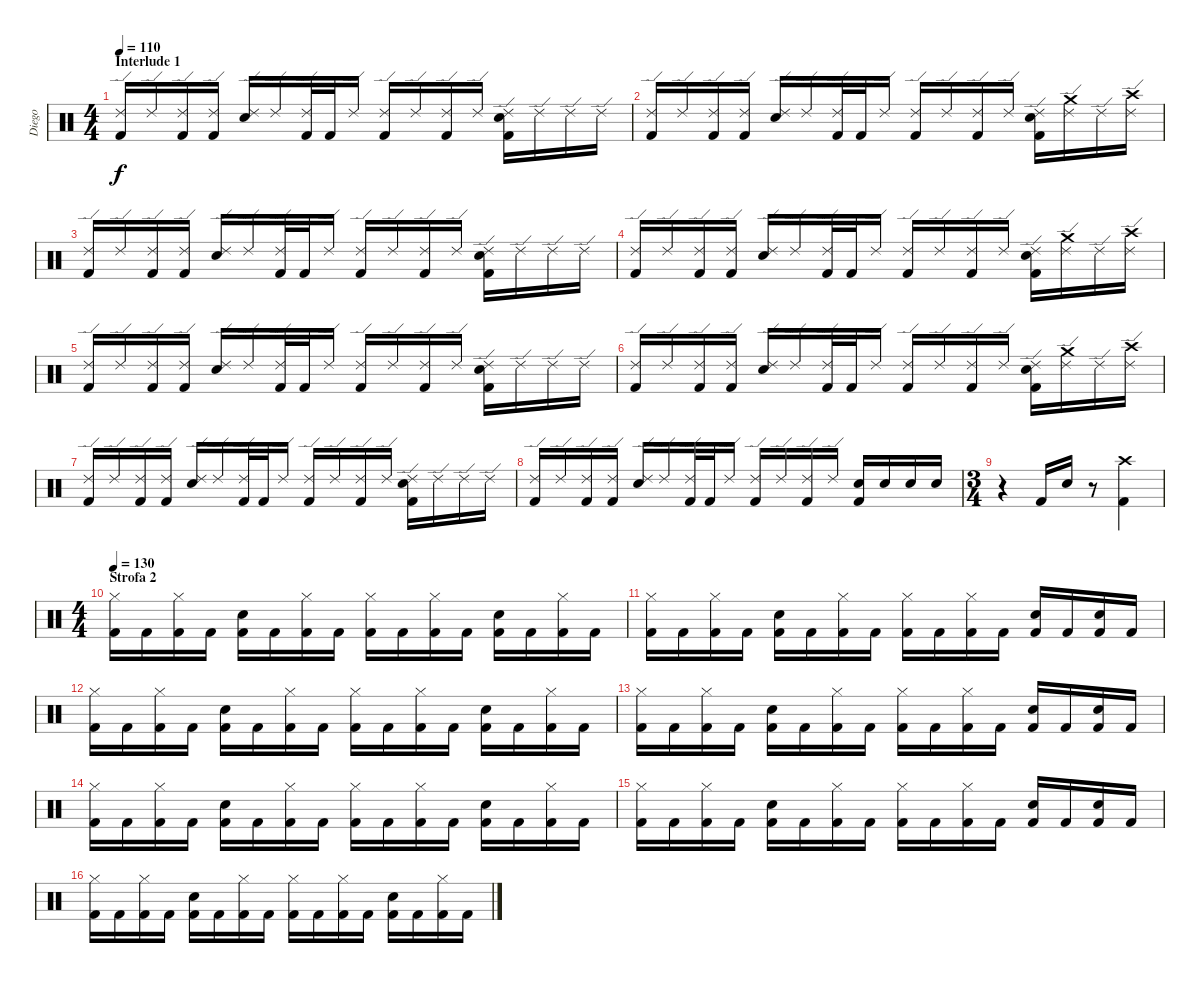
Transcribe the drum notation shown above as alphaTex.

\track ("Diego" "Diego") {instrument percussion}
\staff {score}
\articulation defaults
\ts (4 4)
\section ("" "Interlude 1")
\tempo 110
\clef neutral
\ks c
("Ride (edge) 2" "Kick (hit) 2").16{dy f} "Ride (edge) 2".16 ("Ride (edge) 2" "Kick (hit) 2").16 ("Ride (edge) 2" "Kick (hit) 2").16 ("Snare (hit) 2" "Ride (edge) 2").16 "Ride (edge) 2".16 ("Ride (edge) 2" "Kick (hit) 2").32 "Kick (hit) 2".32 "Ride (edge) 2".16 ("Ride (edge) 2" "Kick (hit) 2").16 "Ride (edge) 2".16 ("Ride (edge) 2" "Kick (hit) 2").16 "Ride (edge) 2".16 ("Ride (edge) 2" "Snare (hit) 2" "Kick (hit) 2").16 "Ride (edge) 2".16 "Ride (edge) 2".16 "Ride (edge) 2".16 |
("Ride (edge) 2" "Kick (hit) 2").16 "Ride (edge) 2".16 ("Ride (edge) 2" "Kick (hit) 2").16 ("Ride (edge) 2" "Kick (hit) 2").16 ("Snare (hit) 2" "Ride (edge) 2").16 "Ride (edge) 2".16 ("Ride (edge) 2" "Kick (hit) 2").32 "Kick (hit) 2".32 "Ride (edge) 2".16 ("Ride (edge) 2" "Kick (hit) 2").16 "Ride (edge) 2".16 ("Ride (edge) 2" "Kick (hit) 2").16 "Ride (edge) 2".16 ("Ride (edge) 2" "Snare (hit) 2" "Kick (hit) 2").16 ("Crash medium (hit)" "Ride (edge) 2").16 "Ride (edge) 2".16 ("Crash high (hit)" "Ride (edge) 2").16 |
("Ride (edge) 2" "Kick (hit) 2").16 "Ride (edge) 2".16 ("Ride (edge) 2" "Kick (hit) 2").16 ("Ride (edge) 2" "Kick (hit) 2").16 ("Snare (hit) 2" "Ride (edge) 2").16 "Ride (edge) 2".16 ("Ride (edge) 2" "Kick (hit) 2").32 "Kick (hit) 2".32 "Ride (edge) 2".16 ("Ride (edge) 2" "Kick (hit) 2").16 "Ride (edge) 2".16 ("Ride (edge) 2" "Kick (hit) 2").16 "Ride (edge) 2".16 ("Ride (edge) 2" "Snare (hit) 2" "Kick (hit) 2").16 "Ride (edge) 2".16 "Ride (edge) 2".16 "Ride (edge) 2".16 |
("Ride (edge) 2" "Kick (hit) 2").16 "Ride (edge) 2".16 ("Ride (edge) 2" "Kick (hit) 2").16 ("Ride (edge) 2" "Kick (hit) 2").16 ("Snare (hit) 2" "Ride (edge) 2").16 "Ride (edge) 2".16 ("Ride (edge) 2" "Kick (hit) 2").32 "Kick (hit) 2".32 "Ride (edge) 2".16 ("Ride (edge) 2" "Kick (hit) 2").16 "Ride (edge) 2".16 ("Ride (edge) 2" "Kick (hit) 2").16 "Ride (edge) 2".16 ("Ride (edge) 2" "Snare (hit) 2" "Kick (hit) 2").16 ("Crash medium (hit)" "Ride (edge) 2").16 "Ride (edge) 2".16 ("Crash high (hit)" "Ride (edge) 2").16 |
("Ride (edge) 2" "Kick (hit) 2").16 "Ride (edge) 2".16 ("Ride (edge) 2" "Kick (hit) 2").16 ("Ride (edge) 2" "Kick (hit) 2").16 ("Snare (hit) 2" "Ride (edge) 2").16 "Ride (edge) 2".16 ("Ride (edge) 2" "Kick (hit) 2").32 "Kick (hit) 2".32 "Ride (edge) 2".16 ("Ride (edge) 2" "Kick (hit) 2").16 "Ride (edge) 2".16 ("Ride (edge) 2" "Kick (hit) 2").16 "Ride (edge) 2".16 ("Ride (edge) 2" "Snare (hit) 2" "Kick (hit) 2").16 "Ride (edge) 2".16 "Ride (edge) 2".16 "Ride (edge) 2".16 |
("Ride (edge) 2" "Kick (hit) 2").16 "Ride (edge) 2".16 ("Ride (edge) 2" "Kick (hit) 2").16 ("Ride (edge) 2" "Kick (hit) 2").16 ("Snare (hit) 2" "Ride (edge) 2").16 "Ride (edge) 2".16 ("Ride (edge) 2" "Kick (hit) 2").32 "Kick (hit) 2".32 "Ride (edge) 2".16 ("Ride (edge) 2" "Kick (hit) 2").16 "Ride (edge) 2".16 ("Ride (edge) 2" "Kick (hit) 2").16 "Ride (edge) 2".16 ("Ride (edge) 2" "Snare (hit) 2" "Kick (hit) 2").16 ("Crash medium (hit)" "Ride (edge) 2").16 "Ride (edge) 2".16 ("Crash high (hit)" "Ride (edge) 2").16 |
("Ride (edge) 2" "Kick (hit) 2").16 "Ride (edge) 2".16 ("Ride (edge) 2" "Kick (hit) 2").16 ("Ride (edge) 2" "Kick (hit) 2").16 ("Snare (hit) 2" "Ride (edge) 2").16 "Ride (edge) 2".16 ("Ride (edge) 2" "Kick (hit) 2").32 "Kick (hit) 2".32 "Ride (edge) 2".16 ("Ride (edge) 2" "Kick (hit) 2").16 "Ride (edge) 2".16 ("Ride (edge) 2" "Kick (hit) 2").16 "Ride (edge) 2".16 ("Ride (edge) 2" "Snare (hit) 2" "Kick (hit) 2").16 "Ride (edge) 2".16 "Ride (edge) 2".16 "Ride (edge) 2".16 |
("Ride (edge) 2" "Kick (hit) 2").16 "Ride (edge) 2".16 ("Ride (edge) 2" "Kick (hit) 2").16 ("Ride (edge) 2" "Kick (hit) 2").16 ("Snare (hit) 2" "Ride (edge) 2").16 "Ride (edge) 2".16 ("Ride (edge) 2" "Kick (hit) 2").32 "Kick (hit) 2".32 "Ride (edge) 2".16 ("Ride (edge) 2" "Kick (hit) 2").16 "Ride (edge) 2".16 ("Ride (edge) 2" "Kick (hit) 2").16 "Ride (edge) 2".16 ("Snare (hit) 2" "Kick (hit) 2").16 "Snare (hit) 2".16 "Snare (hit) 2".16 "Snare (hit) 2".16 |
\ts (3 4)
r.4 "Kick (hit) 2".16 "Snare (hit) 2".16 r.8 ("Crash high (hit)" "Kick (hit) 2").4 |
\ts (4 4)
\section ("" "Strofa 2")
\tempo 130
("Hi-Hat (closed)" "Kick (hit) 2").16 "Kick (hit) 2".16 ("Hi-Hat (closed)" "Kick (hit) 2").16 "Kick (hit) 2".16 ("Snare (hit) 2" "Kick (hit) 2").16 "Kick (hit) 2".16 ("Hi-Hat (closed)" "Kick (hit) 2").16 "Kick (hit) 2".16 ("Hi-Hat (closed)" "Kick (hit) 2").16 "Kick (hit) 2".16 ("Hi-Hat (closed)" "Kick (hit) 2").16 "Kick (hit) 2".16 ("Snare (hit) 2" "Kick (hit) 2").16 "Kick (hit) 2".16 ("Hi-Hat (closed)" "Kick (hit) 2").16 "Kick (hit) 2".16 |
("Hi-Hat (closed)" "Kick (hit) 2").16 "Kick (hit) 2".16 ("Hi-Hat (closed)" "Kick (hit) 2").16 "Kick (hit) 2".16 ("Snare (hit) 2" "Kick (hit) 2").16 "Kick (hit) 2".16 ("Hi-Hat (closed)" "Kick (hit) 2").16 "Kick (hit) 2".16 ("Hi-Hat (closed)" "Kick (hit) 2").16 "Kick (hit) 2".16 ("Hi-Hat (closed)" "Kick (hit) 2").16 "Kick (hit) 2".16 ("Snare (hit) 2" "Kick (hit) 2").16 "Kick (hit) 2".16 ("Snare (hit) 2" "Kick (hit) 2").16 "Kick (hit) 2".16 |
("Hi-Hat (closed)" "Kick (hit) 2").16 "Kick (hit) 2".16 ("Hi-Hat (closed)" "Kick (hit) 2").16 "Kick (hit) 2".16 ("Snare (hit) 2" "Kick (hit) 2").16 "Kick (hit) 2".16 ("Hi-Hat (closed)" "Kick (hit) 2").16 "Kick (hit) 2".16 ("Hi-Hat (closed)" "Kick (hit) 2").16 "Kick (hit) 2".16 ("Hi-Hat (closed)" "Kick (hit) 2").16 "Kick (hit) 2".16 ("Snare (hit) 2" "Kick (hit) 2").16 "Kick (hit) 2".16 ("Hi-Hat (closed)" "Kick (hit) 2").16 "Kick (hit) 2".16 |
("Hi-Hat (closed)" "Kick (hit) 2").16 "Kick (hit) 2".16 ("Hi-Hat (closed)" "Kick (hit) 2").16 "Kick (hit) 2".16 ("Snare (hit) 2" "Kick (hit) 2").16 "Kick (hit) 2".16 ("Hi-Hat (closed)" "Kick (hit) 2").16 "Kick (hit) 2".16 ("Hi-Hat (closed)" "Kick (hit) 2").16 "Kick (hit) 2".16 ("Hi-Hat (closed)" "Kick (hit) 2").16 "Kick (hit) 2".16 ("Snare (hit) 2" "Kick (hit) 2").16 "Kick (hit) 2".16 ("Snare (hit) 2" "Kick (hit) 2").16 "Kick (hit) 2".16 |
("Hi-Hat (closed)" "Kick (hit) 2").16 "Kick (hit) 2".16 ("Hi-Hat (closed)" "Kick (hit) 2").16 "Kick (hit) 2".16 ("Snare (hit) 2" "Kick (hit) 2").16 "Kick (hit) 2".16 ("Hi-Hat (closed)" "Kick (hit) 2").16 "Kick (hit) 2".16 ("Hi-Hat (closed)" "Kick (hit) 2").16 "Kick (hit) 2".16 ("Hi-Hat (closed)" "Kick (hit) 2").16 "Kick (hit) 2".16 ("Snare (hit) 2" "Kick (hit) 2").16 "Kick (hit) 2".16 ("Hi-Hat (closed)" "Kick (hit) 2").16 "Kick (hit) 2".16 |
("Hi-Hat (closed)" "Kick (hit) 2").16 "Kick (hit) 2".16 ("Hi-Hat (closed)" "Kick (hit) 2").16 "Kick (hit) 2".16 ("Snare (hit) 2" "Kick (hit) 2").16 "Kick (hit) 2".16 ("Hi-Hat (closed)" "Kick (hit) 2").16 "Kick (hit) 2".16 ("Hi-Hat (closed)" "Kick (hit) 2").16 "Kick (hit) 2".16 ("Hi-Hat (closed)" "Kick (hit) 2").16 "Kick (hit) 2".16 ("Snare (hit) 2" "Kick (hit) 2").16 "Kick (hit) 2".16 ("Snare (hit) 2" "Kick (hit) 2").16 "Kick (hit) 2".16 |
("Hi-Hat (closed)" "Kick (hit) 2").16 "Kick (hit) 2".16 ("Hi-Hat (closed)" "Kick (hit) 2").16 "Kick (hit) 2".16 ("Snare (hit) 2" "Kick (hit) 2").16 "Kick (hit) 2".16 ("Hi-Hat (closed)" "Kick (hit) 2").16 "Kick (hit) 2".16 ("Hi-Hat (closed)" "Kick (hit) 2").16 "Kick (hit) 2".16 ("Hi-Hat (closed)" "Kick (hit) 2").16 "Kick (hit) 2".16 ("Snare (hit) 2" "Kick (hit) 2").16 "Kick (hit) 2".16 ("Hi-Hat (closed)" "Kick (hit) 2").16 "Kick (hit) 2".16
